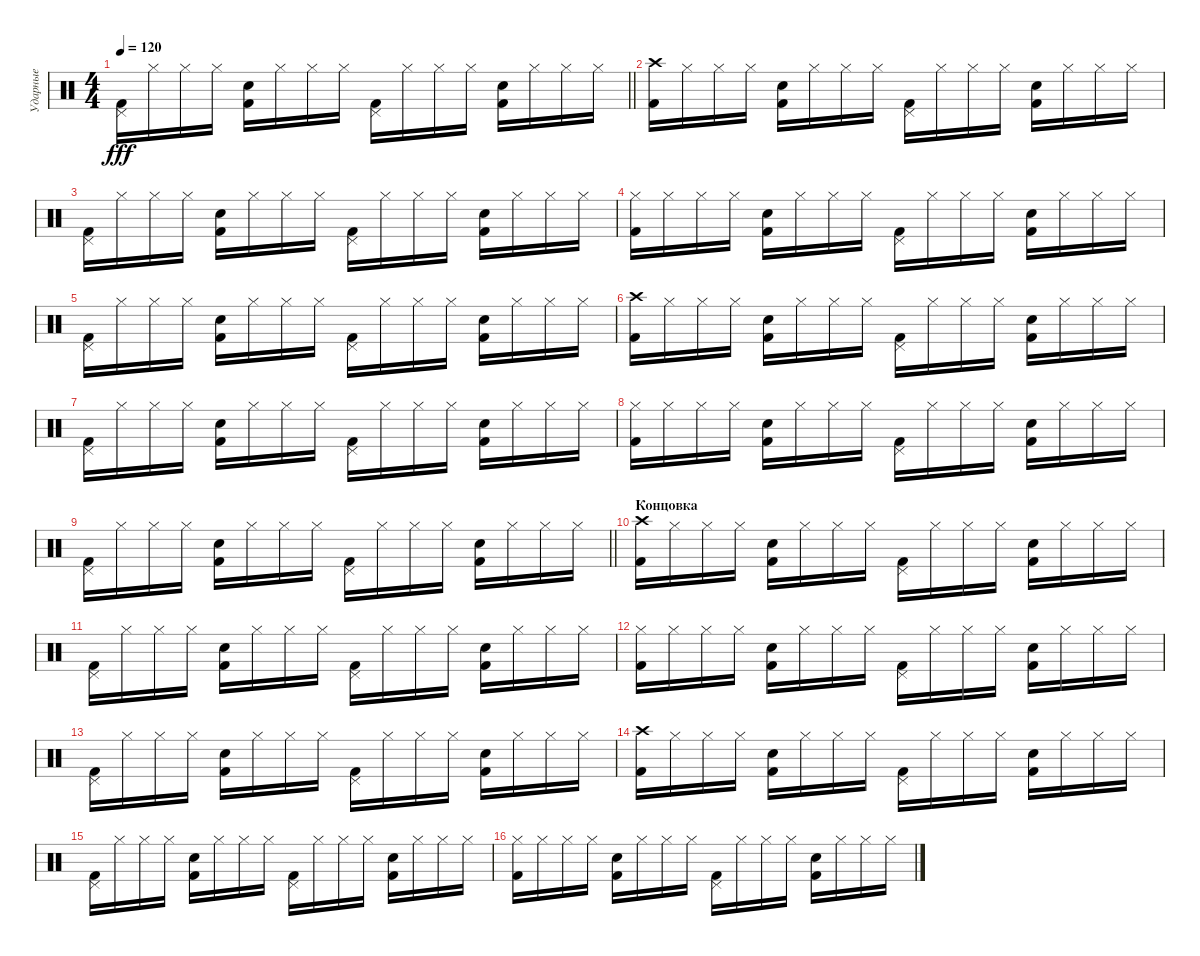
\track ("Ударные" "Ударные") {instrument percussion}
\staff {score}
\articulation defaults
\ts (4 4)
\tempo 120
\clef neutral
\barLineRight lightlight
\ks c
("Pedal Hi-Hat (hit)" "Kick (hit) 2").16{dy fff} "Hi-Hat (closed)".16 "Hi-Hat (closed)".16 "Hi-Hat (closed)".16 ("Snare (hit) 2" "Kick (hit) 2").16 "Hi-Hat (closed)".16 "Hi-Hat (closed)".16 "Hi-Hat (closed)".16 ("Pedal Hi-Hat (hit)" "Kick (hit) 2").16 "Hi-Hat (closed)".16 "Hi-Hat (closed)".16 "Hi-Hat (closed)".16 ("Snare (hit) 2" "Kick (hit) 2").16 "Hi-Hat (closed)".16 "Hi-Hat (closed)".16 "Hi-Hat (closed)".16 |
("Crash high (hit)" "Kick (hit) 2").16 "Hi-Hat (closed)".16 "Hi-Hat (closed)".16 "Hi-Hat (closed)".16 ("Snare (hit) 2" "Kick (hit) 2").16 "Hi-Hat (closed)".16 "Hi-Hat (closed)".16 "Hi-Hat (closed)".16 ("Pedal Hi-Hat (hit)" "Kick (hit) 2").16 "Hi-Hat (closed)".16 "Hi-Hat (closed)".16 "Hi-Hat (closed)".16 ("Snare (hit) 2" "Kick (hit) 2").16 "Hi-Hat (closed)".16 "Hi-Hat (closed)".16 "Hi-Hat (closed)".16 |
("Pedal Hi-Hat (hit)" "Kick (hit) 2").16 "Hi-Hat (closed)".16 "Hi-Hat (closed)".16 "Hi-Hat (closed)".16 ("Snare (hit) 2" "Kick (hit) 2").16 "Hi-Hat (closed)".16 "Hi-Hat (closed)".16 "Hi-Hat (closed)".16 ("Pedal Hi-Hat (hit)" "Kick (hit) 2").16 "Hi-Hat (closed)".16 "Hi-Hat (closed)".16 "Hi-Hat (closed)".16 ("Snare (hit) 2" "Kick (hit) 2").16 "Hi-Hat (closed)".16 "Hi-Hat (closed)".16 "Hi-Hat (closed)".16 |
("Hi-Hat (closed)" "Kick (hit) 2").16 "Hi-Hat (closed)".16 "Hi-Hat (closed)".16 "Hi-Hat (closed)".16 ("Snare (hit) 2" "Kick (hit) 2").16 "Hi-Hat (closed)".16 "Hi-Hat (closed)".16 "Hi-Hat (closed)".16 ("Pedal Hi-Hat (hit)" "Kick (hit) 2").16 "Hi-Hat (closed)".16 "Hi-Hat (closed)".16 "Hi-Hat (closed)".16 ("Snare (hit) 2" "Kick (hit) 2").16 "Hi-Hat (closed)".16 "Hi-Hat (closed)".16 "Hi-Hat (closed)".16 |
("Pedal Hi-Hat (hit)" "Kick (hit) 2").16 "Hi-Hat (closed)".16 "Hi-Hat (closed)".16 "Hi-Hat (closed)".16 ("Snare (hit) 2" "Kick (hit) 2").16 "Hi-Hat (closed)".16 "Hi-Hat (closed)".16 "Hi-Hat (closed)".16 ("Pedal Hi-Hat (hit)" "Kick (hit) 2").16 "Hi-Hat (closed)".16 "Hi-Hat (closed)".16 "Hi-Hat (closed)".16 ("Snare (hit) 2" "Kick (hit) 2").16 "Hi-Hat (closed)".16 "Hi-Hat (closed)".16 "Hi-Hat (closed)".16 |
("Crash high (hit)" "Kick (hit) 2").16 "Hi-Hat (closed)".16 "Hi-Hat (closed)".16 "Hi-Hat (closed)".16 ("Snare (hit) 2" "Kick (hit) 2").16 "Hi-Hat (closed)".16 "Hi-Hat (closed)".16 "Hi-Hat (closed)".16 ("Pedal Hi-Hat (hit)" "Kick (hit) 2").16 "Hi-Hat (closed)".16 "Hi-Hat (closed)".16 "Hi-Hat (closed)".16 ("Snare (hit) 2" "Kick (hit) 2").16 "Hi-Hat (closed)".16 "Hi-Hat (closed)".16 "Hi-Hat (closed)".16 |
("Pedal Hi-Hat (hit)" "Kick (hit) 2").16 "Hi-Hat (closed)".16 "Hi-Hat (closed)".16 "Hi-Hat (closed)".16 ("Snare (hit) 2" "Kick (hit) 2").16 "Hi-Hat (closed)".16 "Hi-Hat (closed)".16 "Hi-Hat (closed)".16 ("Pedal Hi-Hat (hit)" "Kick (hit) 2").16 "Hi-Hat (closed)".16 "Hi-Hat (closed)".16 "Hi-Hat (closed)".16 ("Snare (hit) 2" "Kick (hit) 2").16 "Hi-Hat (closed)".16 "Hi-Hat (closed)".16 "Hi-Hat (closed)".16 |
("Hi-Hat (closed)" "Kick (hit) 2").16 "Hi-Hat (closed)".16 "Hi-Hat (closed)".16 "Hi-Hat (closed)".16 ("Snare (hit) 2" "Kick (hit) 2").16 "Hi-Hat (closed)".16 "Hi-Hat (closed)".16 "Hi-Hat (closed)".16 ("Pedal Hi-Hat (hit)" "Kick (hit) 2").16 "Hi-Hat (closed)".16 "Hi-Hat (closed)".16 "Hi-Hat (closed)".16 ("Snare (hit) 2" "Kick (hit) 2").16 "Hi-Hat (closed)".16 "Hi-Hat (closed)".16 "Hi-Hat (closed)".16 |
\barLineRight lightlight
("Pedal Hi-Hat (hit)" "Kick (hit) 2").16 "Hi-Hat (closed)".16 "Hi-Hat (closed)".16 "Hi-Hat (closed)".16 ("Snare (hit) 2" "Kick (hit) 2").16 "Hi-Hat (closed)".16 "Hi-Hat (closed)".16 "Hi-Hat (closed)".16 ("Pedal Hi-Hat (hit)" "Kick (hit) 2").16 "Hi-Hat (closed)".16 "Hi-Hat (closed)".16 "Hi-Hat (closed)".16 ("Snare (hit) 2" "Kick (hit) 2").16 "Hi-Hat (closed)".16 "Hi-Hat (closed)".16 "Hi-Hat (closed)".16 |
\section ("" "Концовка")
("Crash high (hit)" "Kick (hit) 2").16 "Hi-Hat (closed)".16 "Hi-Hat (closed)".16 "Hi-Hat (closed)".16 ("Snare (hit) 2" "Kick (hit) 2").16 "Hi-Hat (closed)".16 "Hi-Hat (closed)".16 "Hi-Hat (closed)".16 ("Pedal Hi-Hat (hit)" "Kick (hit) 2").16 "Hi-Hat (closed)".16 "Hi-Hat (closed)".16 "Hi-Hat (closed)".16 ("Snare (hit) 2" "Kick (hit) 2").16 "Hi-Hat (closed)".16 "Hi-Hat (closed)".16 "Hi-Hat (closed)".16 |
("Pedal Hi-Hat (hit)" "Kick (hit) 2").16 "Hi-Hat (closed)".16 "Hi-Hat (closed)".16 "Hi-Hat (closed)".16 ("Snare (hit) 2" "Kick (hit) 2").16 "Hi-Hat (closed)".16 "Hi-Hat (closed)".16 "Hi-Hat (closed)".16 ("Pedal Hi-Hat (hit)" "Kick (hit) 2").16 "Hi-Hat (closed)".16 "Hi-Hat (closed)".16 "Hi-Hat (closed)".16 ("Snare (hit) 2" "Kick (hit) 2").16 "Hi-Hat (closed)".16 "Hi-Hat (closed)".16 "Hi-Hat (closed)".16 |
("Hi-Hat (closed)" "Kick (hit) 2").16 "Hi-Hat (closed)".16 "Hi-Hat (closed)".16 "Hi-Hat (closed)".16 ("Snare (hit) 2" "Kick (hit) 2").16 "Hi-Hat (closed)".16 "Hi-Hat (closed)".16 "Hi-Hat (closed)".16 ("Pedal Hi-Hat (hit)" "Kick (hit) 2").16 "Hi-Hat (closed)".16 "Hi-Hat (closed)".16 "Hi-Hat (closed)".16 ("Snare (hit) 2" "Kick (hit) 2").16 "Hi-Hat (closed)".16 "Hi-Hat (closed)".16 "Hi-Hat (closed)".16 |
("Pedal Hi-Hat (hit)" "Kick (hit) 2").16 "Hi-Hat (closed)".16 "Hi-Hat (closed)".16 "Hi-Hat (closed)".16 ("Snare (hit) 2" "Kick (hit) 2").16 "Hi-Hat (closed)".16 "Hi-Hat (closed)".16 "Hi-Hat (closed)".16 ("Pedal Hi-Hat (hit)" "Kick (hit) 2").16 "Hi-Hat (closed)".16 "Hi-Hat (closed)".16 "Hi-Hat (closed)".16 ("Snare (hit) 2" "Kick (hit) 2").16 "Hi-Hat (closed)".16 "Hi-Hat (closed)".16 "Hi-Hat (closed)".16 |
("Crash high (hit)" "Kick (hit) 2").16 "Hi-Hat (closed)".16 "Hi-Hat (closed)".16 "Hi-Hat (closed)".16 ("Snare (hit) 2" "Kick (hit) 2").16 "Hi-Hat (closed)".16 "Hi-Hat (closed)".16 "Hi-Hat (closed)".16 ("Pedal Hi-Hat (hit)" "Kick (hit) 2").16 "Hi-Hat (closed)".16 "Hi-Hat (closed)".16 "Hi-Hat (closed)".16 ("Snare (hit) 2" "Kick (hit) 2").16 "Hi-Hat (closed)".16 "Hi-Hat (closed)".16 "Hi-Hat (closed)".16 |
("Pedal Hi-Hat (hit)" "Kick (hit) 2").16 "Hi-Hat (closed)".16 "Hi-Hat (closed)".16 "Hi-Hat (closed)".16 ("Snare (hit) 2" "Kick (hit) 2").16 "Hi-Hat (closed)".16 "Hi-Hat (closed)".16 "Hi-Hat (closed)".16 ("Pedal Hi-Hat (hit)" "Kick (hit) 2").16 "Hi-Hat (closed)".16 "Hi-Hat (closed)".16 "Hi-Hat (closed)".16 ("Snare (hit) 2" "Kick (hit) 2").16 "Hi-Hat (closed)".16 "Hi-Hat (closed)".16 "Hi-Hat (closed)".16 |
("Hi-Hat (closed)" "Kick (hit) 2").16 "Hi-Hat (closed)".16 "Hi-Hat (closed)".16 "Hi-Hat (closed)".16 ("Snare (hit) 2" "Kick (hit) 2").16 "Hi-Hat (closed)".16 "Hi-Hat (closed)".16 "Hi-Hat (closed)".16 ("Pedal Hi-Hat (hit)" "Kick (hit) 2").16 "Hi-Hat (closed)".16 "Hi-Hat (closed)".16 "Hi-Hat (closed)".16 ("Snare (hit) 2" "Kick (hit) 2").16 "Hi-Hat (closed)".16 "Hi-Hat (closed)".16 "Hi-Hat (closed)".16
